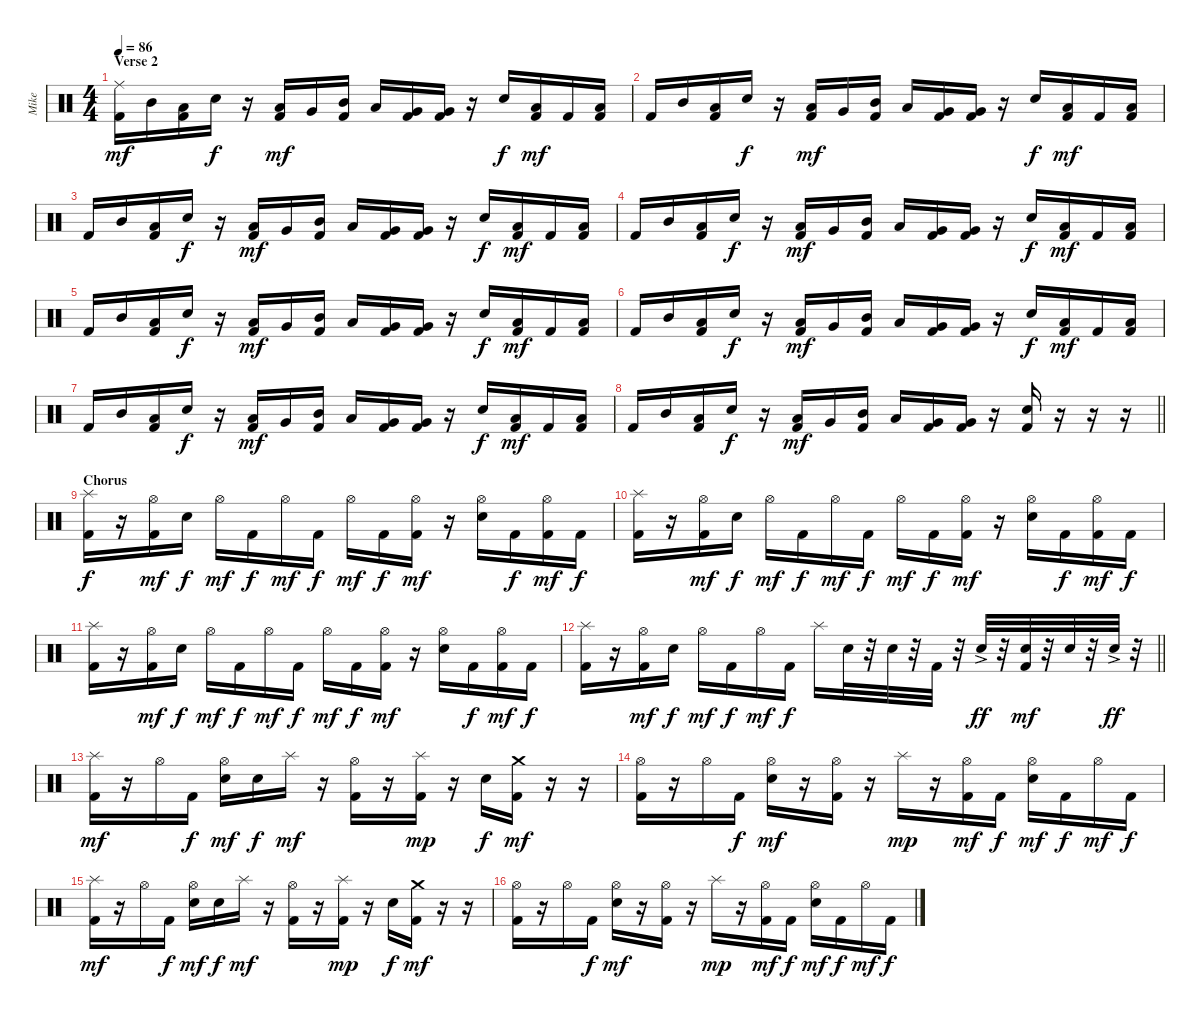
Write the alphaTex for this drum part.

\track ("Mike" "Mike") {instrument percussion}
\staff {score}
\articulation defaults
\ts (4 4)
\section ("" "Verse 2")
\tempo 86
\clef neutral
\ks c
("Ride (middle)" "Kick (hit) 2").16{dy mf} "Mid Tom (hit)".16 ("Low Tom (hit)" "Kick (hit) 2").16 "Snare (hit) 2".16{dy f} r.16 ("Low Tom (hit)" "Kick (hit) 2").16{dy mf} "Very Low Tom (hit)".16 ("Mid Tom (hit)" "Kick (hit) 2").16 "Low Tom (hit)".16 ("Very Low Tom (hit)" "Kick (hit) 2").16 ("Very Low Tom (hit)" "Kick (hit) 2").16 r.16 "Snare (hit) 2".16{dy f} ("Low Tom (hit)" "Kick (hit) 2").16{dy mf} "Kick (hit) 2".16 ("Low Tom (hit)" "Kick (hit) 2").16 |
"Kick (hit) 2".16 "Mid Tom (hit)".16 ("Low Tom (hit)" "Kick (hit) 2").16 "Snare (hit) 2".16{dy f} r.16 ("Low Tom (hit)" "Kick (hit) 2").16{dy mf} "Very Low Tom (hit)".16 ("Mid Tom (hit)" "Kick (hit) 2").16 "Low Tom (hit)".16 ("Very Low Tom (hit)" "Kick (hit) 2").16 ("Very Low Tom (hit)" "Kick (hit) 2").16 r.16 "Snare (hit) 2".16{dy f} ("Low Tom (hit)" "Kick (hit) 2").16{dy mf} "Kick (hit) 2".16 ("Low Tom (hit)" "Kick (hit) 2").16 |
"Kick (hit) 2".16 "Mid Tom (hit)".16 ("Low Tom (hit)" "Kick (hit) 2").16 "Snare (hit) 2".16{dy f} r.16 ("Low Tom (hit)" "Kick (hit) 2").16{dy mf} "Very Low Tom (hit)".16 ("Mid Tom (hit)" "Kick (hit) 2").16 "Low Tom (hit)".16 ("Very Low Tom (hit)" "Kick (hit) 2").16 ("Very Low Tom (hit)" "Kick (hit) 2").16 r.16 "Snare (hit) 2".16{dy f} ("Low Tom (hit)" "Kick (hit) 2").16{dy mf} "Kick (hit) 2".16 ("Low Tom (hit)" "Kick (hit) 2").16 |
"Kick (hit) 2".16 "Mid Tom (hit)".16 ("Low Tom (hit)" "Kick (hit) 2").16 "Snare (hit) 2".16{dy f} r.16 ("Low Tom (hit)" "Kick (hit) 2").16{dy mf} "Very Low Tom (hit)".16 ("Mid Tom (hit)" "Kick (hit) 2").16 "Low Tom (hit)".16 ("Very Low Tom (hit)" "Kick (hit) 2").16 ("Very Low Tom (hit)" "Kick (hit) 2").16 r.16 "Snare (hit) 2".16{dy f} ("Low Tom (hit)" "Kick (hit) 2").16{dy mf} "Kick (hit) 2".16 ("Low Tom (hit)" "Kick (hit) 2").16 |
"Kick (hit) 2".16 "Mid Tom (hit)".16 ("Low Tom (hit)" "Kick (hit) 2").16 "Snare (hit) 2".16{dy f} r.16 ("Low Tom (hit)" "Kick (hit) 2").16{dy mf} "Very Low Tom (hit)".16 ("Mid Tom (hit)" "Kick (hit) 2").16 "Low Tom (hit)".16 ("Very Low Tom (hit)" "Kick (hit) 2").16 ("Very Low Tom (hit)" "Kick (hit) 2").16 r.16 "Snare (hit) 2".16{dy f} ("Low Tom (hit)" "Kick (hit) 2").16{dy mf} "Kick (hit) 2".16 ("Low Tom (hit)" "Kick (hit) 2").16 |
"Kick (hit) 2".16 "Mid Tom (hit)".16 ("Low Tom (hit)" "Kick (hit) 2").16 "Snare (hit) 2".16{dy f} r.16 ("Low Tom (hit)" "Kick (hit) 2").16{dy mf} "Very Low Tom (hit)".16 ("Mid Tom (hit)" "Kick (hit) 2").16 "Low Tom (hit)".16 ("Very Low Tom (hit)" "Kick (hit) 2").16 ("Very Low Tom (hit)" "Kick (hit) 2").16 r.16 "Snare (hit) 2".16{dy f} ("Low Tom (hit)" "Kick (hit) 2").16{dy mf} "Kick (hit) 2".16 ("Low Tom (hit)" "Kick (hit) 2").16 |
"Kick (hit) 2".16 "Mid Tom (hit)".16 ("Low Tom (hit)" "Kick (hit) 2").16 "Snare (hit) 2".16{dy f} r.16 ("Low Tom (hit)" "Kick (hit) 2").16{dy mf} "Very Low Tom (hit)".16 ("Mid Tom (hit)" "Kick (hit) 2").16 "Low Tom (hit)".16 ("Very Low Tom (hit)" "Kick (hit) 2").16 ("Very Low Tom (hit)" "Kick (hit) 2").16 r.16 "Snare (hit) 2".16{dy f} ("Low Tom (hit)" "Kick (hit) 2").16{dy mf} "Kick (hit) 2".16 ("Low Tom (hit)" "Kick (hit) 2").16 |
\barLineRight lightlight "Kick (hit) 2".16 "Mid Tom (hit)".16
("Low Tom (hit)" "Kick (hit) 2").16 "Snare (hit) 2".16{dy f} r.16 ("Low Tom (hit)" "Kick (hit) 2").16{dy mf} "Very Low Tom (hit)".16 ("Mid Tom (hit)" "Kick (hit) 2").16 "Low Tom (hit)".16 ("Very Low Tom (hit)" "Kick (hit) 2").16 ("Very Low Tom (hit)" "Kick (hit) 2").16 r.16 ("Snare (hit) 2" "Kick (hit) 2").16 r.16 r.16 r.16 |
\section ("" "Chorus")
("Splash (hit)" "Kick (hit) 2").16{dy f} r.16 ("Hi-Hat (open)" "Kick (hit) 2").16{dy mf} "Snare (hit) 2".16{dy f} "Hi-Hat (open)".16{dy mf} "Kick (hit) 2".16{dy f} "Hi-Hat (open)".16{dy mf} "Kick (hit) 2".16{dy f} "Hi-Hat (open)".16{dy mf} "Kick (hit) 2".16{dy f} ("Hi-Hat (open)" "Kick (hit) 2").16{dy mf} r.16 ("Hi-Hat (open)" "Snare (hit) 2").16 "Kick (hit) 2".16{dy f} ("Hi-Hat (open)" "Kick (hit) 2").16{dy mf} "Kick (hit) 2".16{dy f} |
("Splash (hit)" "Kick (hit) 2").16 r.16 ("Hi-Hat (open)" "Kick (hit) 2").16{dy mf} "Snare (hit) 2".16{dy f} "Hi-Hat (open)".16{dy mf} "Kick (hit) 2".16{dy f} "Hi-Hat (open)".16{dy mf} "Kick (hit) 2".16{dy f} "Hi-Hat (open)".16{dy mf} "Kick (hit) 2".16{dy f} ("Hi-Hat (open)" "Kick (hit) 2").16{dy mf} r.16 ("Hi-Hat (open)" "Snare (hit) 2").16 "Kick (hit) 2".16{dy f} ("Hi-Hat (open)" "Kick (hit) 2").16{dy mf} "Kick (hit) 2".16{dy f} |
("Splash (hit)" "Kick (hit) 2").16 r.16 ("Hi-Hat (open)" "Kick (hit) 2").16{dy mf} "Snare (hit) 2".16{dy f} "Hi-Hat (open)".16{dy mf} "Kick (hit) 2".16{dy f} "Hi-Hat (open)".16{dy mf} "Kick (hit) 2".16{dy f} "Hi-Hat (open)".16{dy mf} "Kick (hit) 2".16{dy f} ("Hi-Hat (open)" "Kick (hit) 2").16{dy mf} r.16 ("Hi-Hat (open)" "Snare (hit) 2").16 "Kick (hit) 2".16{dy f} ("Hi-Hat (open)" "Kick (hit) 2").16{dy mf} "Kick (hit) 2".16{dy f} |
\barLineRight lightlight
("Splash (hit)" "Kick (hit) 2").16 r.16 ("Hi-Hat (open)" "Kick (hit) 2").16{dy mf} "Snare (hit) 2".16{dy f} "Hi-Hat (open)".16{dy mf} "Kick (hit) 2".16{dy f} "Hi-Hat (open)".16{dy mf} "Kick (hit) 2".16{dy f} "Splash (hit)".16 "Snare (hit) 2".32 r.32 "Snare (hit) 2".32 r.32 "Kick (hit) 2".32 r.32 "Snare (hit) 2"{ac}.32{dy ff} r.32 ("Snare (hit) 2" "Kick (hit) 2").32{dy mf} r.32 "Snare (hit) 2".32 r.32 "Snare (hit) 2"{ac}.32{dy ff} r.32 |
("Splash (hit)" "Kick (hit) 2").16{dy mf} r.16 "Hi-Hat (open)".16 "Kick (hit) 2".16{dy f} ("Hi-Hat (open)" "Snare (hit) 2").16{dy mf} "Snare (hit) 2".16{dy f} "Splash (hit)".16{dy mf} r.16 ("Hi-Hat (open)" "Kick (hit) 2").16 r.16 ("Splash (hit)" "Kick (hit) 2").16{dy mp} r.16 "Snare (hit) 2".16{dy f} ("Crash medium (hit)" "Kick (hit) 2").16{dy mf} r.16 r.16 |
("Hi-Hat (open)" "Kick (hit) 2").16 r.16 "Hi-Hat (open)".16 "Kick (hit) 2".16{dy f} ("Hi-Hat (open)" "Snare (hit) 2").16{dy mf} r.16 ("Hi-Hat (open)" "Kick (hit) 2").16 r.16 "Splash (hit)".16{dy mp} r.16 ("Hi-Hat (open)" "Kick (hit) 2").16{dy mf} "Kick (hit) 2".16{dy f} ("Hi-Hat (open)" "Snare (hit) 2").16{dy mf} "Kick (hit) 2".16{dy f} "Hi-Hat (open)".16{dy mf} "Kick (hit) 2".16{dy f} |
("Splash (hit)" "Kick (hit) 2").16{dy mf} r.16 "Hi-Hat (open)".16 "Kick (hit) 2".16{dy f} ("Hi-Hat (open)" "Snare (hit) 2").16{dy mf} "Snare (hit) 2".16{dy f} "Splash (hit)".16{dy mf} r.16 ("Hi-Hat (open)" "Kick (hit) 2").16 r.16 ("Splash (hit)" "Kick (hit) 2").16{dy mp} r.16 "Snare (hit) 2".16{dy f} ("Crash medium (hit)" "Kick (hit) 2").16{dy mf} r.16 r.16 |
("Hi-Hat (open)" "Kick (hit) 2").16 r.16 "Hi-Hat (open)".16 "Kick (hit) 2".16{dy f} ("Hi-Hat (open)" "Snare (hit) 2").16{dy mf} r.16 ("Hi-Hat (open)" "Kick (hit) 2").16 r.16 "Splash (hit)".16{dy mp} r.16 ("Hi-Hat (open)" "Kick (hit) 2").16{dy mf} "Kick (hit) 2".16{dy f} ("Hi-Hat (open)" "Snare (hit) 2").16{dy mf} "Kick (hit) 2".16{dy f} "Hi-Hat (open)".16{dy mf} "Kick (hit) 2".16{dy f}
